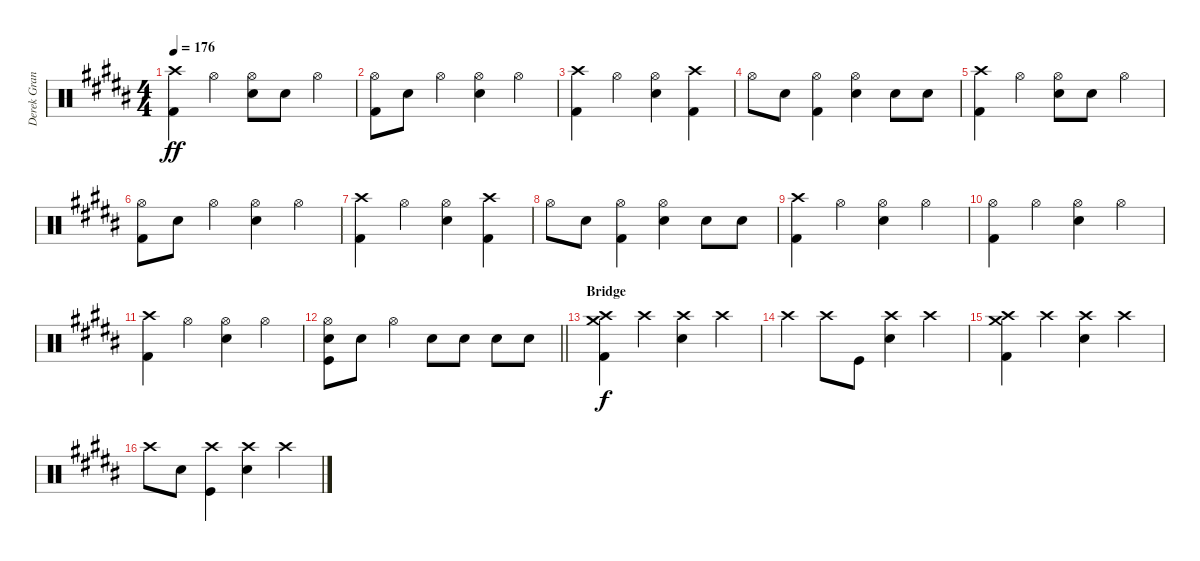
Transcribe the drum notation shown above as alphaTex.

\track ("Derek Grant - Drums" "Derek Gran") {instrument percussion}
\staff {score}
\articulation defaults
\ts (4 4)
\tempo 176
\clef neutral
\ks b
("Crash high (hit)" "Kick (hit) 2").4{dy ff} "Hi-Hat (open)".4 ("Hi-Hat (open)" "Snare (hit) 2").8 "Snare (hit) 2".8 "Hi-Hat (open)".4 |
("Hi-Hat (open)" "Kick (hit) 2").8 "Snare (hit) 2".8 "Hi-Hat (open)".4 ("Hi-Hat (open)" "Snare (hit) 2").4 "Hi-Hat (open)".4 |
("Crash high (hit)" "Kick (hit) 2").4 "Hi-Hat (open)".4 ("Hi-Hat (open)" "Snare (hit) 2").4 ("Crash high (hit)" "Kick (hit) 2").4 |
"Hi-Hat (open)".8 "Snare (hit) 2".8 ("Kick (hit) 2" "Hi-Hat (open)").4 ("Hi-Hat (open)" "Snare (hit) 2").4 "Snare (hit) 2".8 "Snare (hit) 2".8 |
("Crash high (hit)" "Kick (hit) 2").4 "Hi-Hat (open)".4 ("Hi-Hat (open)" "Snare (hit) 2").8 "Snare (hit) 2".8 "Hi-Hat (open)".4 |
("Hi-Hat (open)" "Kick (hit) 2").8 "Snare (hit) 2".8 "Hi-Hat (open)".4 ("Hi-Hat (open)" "Snare (hit) 2").4 "Hi-Hat (open)".4 |
("Crash high (hit)" "Kick (hit) 2").4 "Hi-Hat (open)".4 ("Hi-Hat (open)" "Snare (hit) 2").4 ("Crash high (hit)" "Kick (hit) 2").4 |
"Hi-Hat (open)".8 "Snare (hit) 2".8 ("Kick (hit) 2" "Hi-Hat (open)").4 ("Hi-Hat (open)" "Snare (hit) 2").4 "Snare (hit) 2".8 "Snare (hit) 2".8 |
("Crash high (hit)" "Kick (hit) 2").4 "Hi-Hat (open)".4 ("Hi-Hat (open)" "Snare (hit) 2").4 "Hi-Hat (open)".4 |
("Hi-Hat (open)" "Kick (hit) 2").4 "Hi-Hat (open)".4 ("Hi-Hat (open)" "Snare (hit) 2").4 "Hi-Hat (open)".4 |
("Crash high (hit)" "Kick (hit) 2").4 "Hi-Hat (open)".4 ("Hi-Hat (open)" "Snare (hit) 2").4 "Hi-Hat (open)".4 |
\barLineRight lightlight
("Snare (hit) 2" "Kick (hit)" "Hi-Hat (open)").8 "Snare (hit) 2".8 "Hi-Hat (open)".4 "Snare (hit) 2".8 "Snare (hit) 2".8 "Snare (hit) 2".8 "Snare (hit) 2".8 |
\section ("" "Bridge")
("Crash medium (hit)" "Kick (hit) 2" "Crash high (hit)").4{dy f} "Crash high (hit)".4 ("Crash high (hit)" "Snare (hit) 2").4 "Crash high (hit)".4 |
"Crash high (hit)".4 "Crash high (hit)".8 "Kick (hit)".8 ("Crash high (hit)" "Snare (hit) 2").4 "Crash high (hit)".4 |
("Crash medium (hit)" "Kick (hit) 2" "Crash high (hit)").4 "Crash high (hit)".4 ("Crash high (hit)" "Snare (hit) 2").4 "Crash high (hit)".4 |
"Crash high (hit)".8 "Snare (hit) 2".8 ("Crash high (hit)" "Kick (hit)").4 ("Crash high (hit)" "Snare (hit) 2").4 "Crash high (hit)".4
